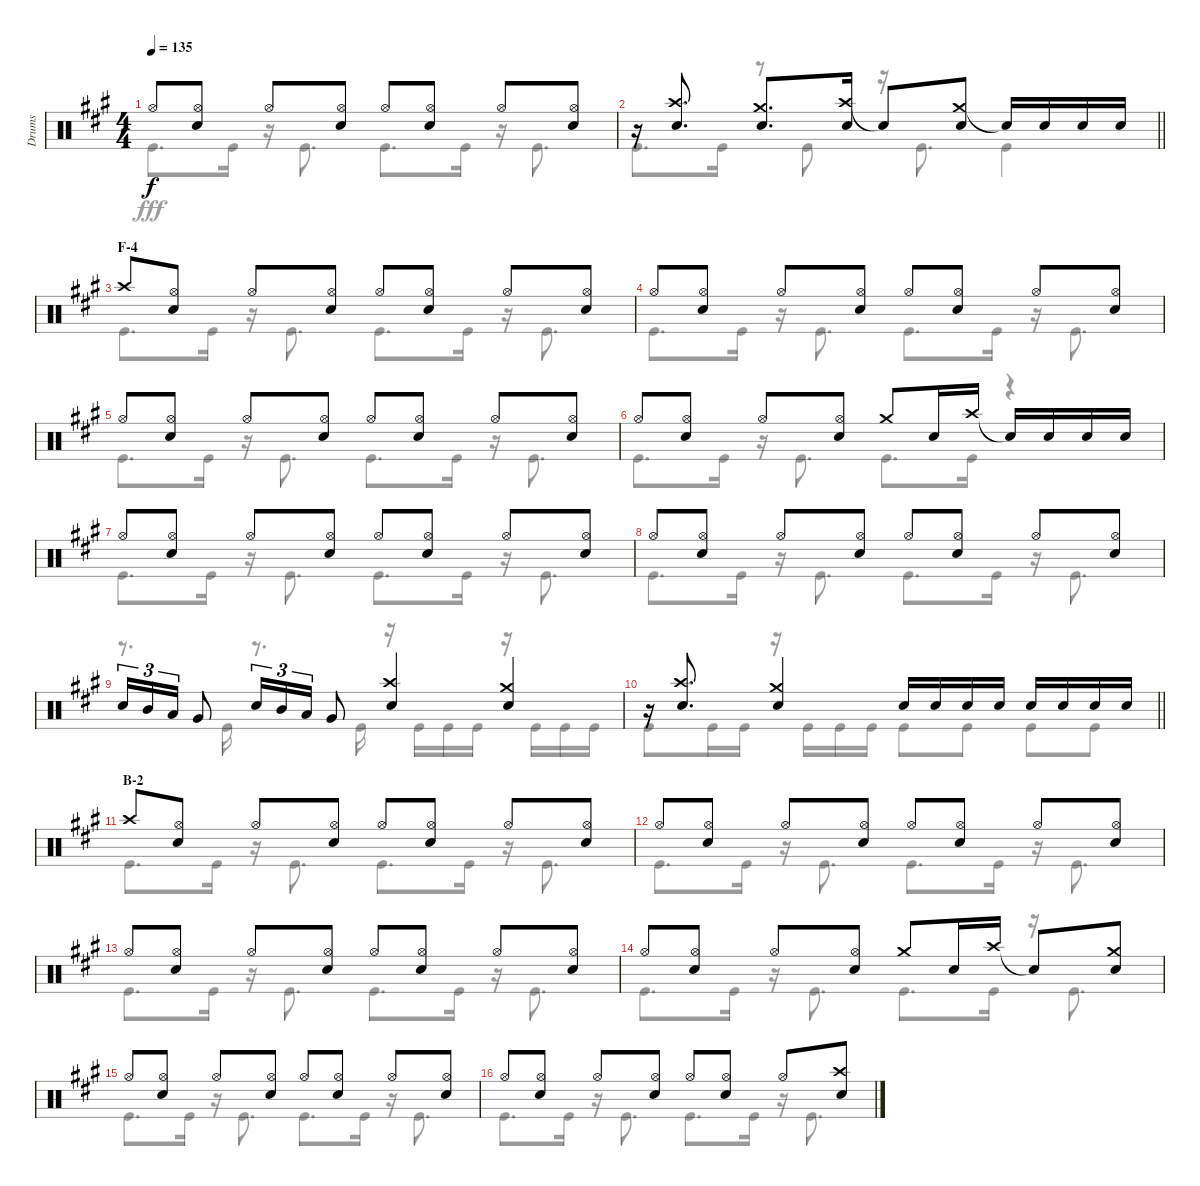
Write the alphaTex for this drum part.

\track ("Drums" "Drums") {instrument percussion}
\staff {score}
\articulation defaults
\voice
\ts (4 4)
\tempo 135
\clef neutral
\ks a "Hi-Hat (open)".8{dy f}
("Hi-Hat (open)" "Snare (hit) 2").8 "Hi-Hat (open)".8 ("Hi-Hat (open)" "Snare (hit) 2").8 "Hi-Hat (open)".8 ("Hi-Hat (open)" "Snare (hit) 2").8 "Hi-Hat (open)".8 ("Hi-Hat (open)" "Snare (hit) 2").8 |
\barLineRight lightlight
r.16 ("Crash high (hit)" "Snare (hit) 2").8{d} ("Crash medium (hit)" "Snare (hit) 2").8{d} ("Crash high (hit)" "Snare (hit) 2").16 "Snare (hit)"{t}.8 ("Crash medium (hit)" "Snare (hit) 2").8 "Snare (hit)"{t}.16 "Snare (hit) 2".16 "Snare (hit) 2".16 "Snare (hit) 2".16 |
\section ("" "F-4")
"Crash high (hit)".8 ("Hi-Hat (open)" "Snare (hit) 2").8 "Hi-Hat (open)".8 ("Hi-Hat (open)" "Snare (hit) 2").8 "Hi-Hat (open)".8 ("Hi-Hat (open)" "Snare (hit) 2").8 "Hi-Hat (open)".8 ("Hi-Hat (open)" "Snare (hit) 2").8 |
"Hi-Hat (open)".8 ("Hi-Hat (open)" "Snare (hit) 2").8 "Hi-Hat (open)".8 ("Hi-Hat (open)" "Snare (hit) 2").8 "Hi-Hat (open)".8 ("Hi-Hat (open)" "Snare (hit) 2").8 "Hi-Hat (open)".8 ("Hi-Hat (open)" "Snare (hit) 2").8 |
"Hi-Hat (open)".8 ("Hi-Hat (open)" "Snare (hit) 2").8 "Hi-Hat (open)".8 ("Hi-Hat (open)" "Snare (hit) 2").8 "Hi-Hat (open)".8 ("Hi-Hat (open)" "Snare (hit) 2").8 "Hi-Hat (open)".8 ("Hi-Hat (open)" "Snare (hit) 2").8 |
"Hi-Hat (open)".8 ("Hi-Hat (open)" "Snare (hit) 2").8 "Hi-Hat (open)".8 ("Hi-Hat (open)" "Snare (hit) 2").8 "Crash medium (hit)".8 "Snare (hit) 2".16 "Crash high (hit)".16 "Snare (hit)"{t}.16 "Snare (hit) 2".16 "Snare (hit) 2".16 "Snare (hit) 2".16 |
"Hi-Hat (open)".8 ("Hi-Hat (open)" "Snare (hit) 2").8 "Hi-Hat (open)".8 ("Hi-Hat (open)" "Snare (hit) 2").8 "Hi-Hat (open)".8 ("Hi-Hat (open)" "Snare (hit) 2").8 "Hi-Hat (open)".8 ("Hi-Hat (open)" "Snare (hit) 2").8 |
"Hi-Hat (open)".8 ("Hi-Hat (open)" "Snare (hit) 2").8 "Hi-Hat (open)".8 ("Hi-Hat (open)" "Snare (hit) 2").8 "Hi-Hat (open)".8 ("Hi-Hat (open)" "Snare (hit) 2").8 "Hi-Hat (open)".8 ("Hi-Hat (open)" "Snare (hit) 2").8 |
"Snare (hit) 2".16{tu (3 2)} "Mid Tom (hit)".16{tu (3 2)} "Low Tom (hit)".16{tu (3 2)} "Very Low Tom (hit)".8 "Snare (hit) 2".16{tu (3 2)} "Mid Tom (hit)".16{tu (3 2)} "Low Tom (hit)".16{tu (3 2)} "Very Low Tom (hit)".8 ("Crash high (hit)" "Snare (hit) 2").4 ("Crash medium (hit)" "Snare (hit) 2").4 |
\barLineRight lightlight
r.16 ("Crash high (hit)" "Snare (hit) 2").8{d} ("Crash medium (hit)" "Snare (hit) 2").4 "Snare (hit) 2".16 "Snare (hit) 2".16 "Snare (hit) 2".16 "Snare (hit) 2".16 "Snare (hit) 2".16 "Snare (hit) 2".16 "Snare (hit) 2".16 "Snare (hit) 2".16 |
\section ("" "B-2")
"Crash high (hit)".8 ("Hi-Hat (open)" "Snare (hit) 2").8 "Hi-Hat (open)".8 ("Hi-Hat (open)" "Snare (hit) 2").8 "Hi-Hat (open)".8 ("Hi-Hat (open)" "Snare (hit) 2").8 "Hi-Hat (open)".8 ("Hi-Hat (open)" "Snare (hit) 2").8 |
"Hi-Hat (open)".8 ("Hi-Hat (open)" "Snare (hit) 2").8 "Hi-Hat (open)".8 ("Hi-Hat (open)" "Snare (hit) 2").8 "Hi-Hat (open)".8 ("Hi-Hat (open)" "Snare (hit) 2").8 "Hi-Hat (open)".8 ("Hi-Hat (open)" "Snare (hit) 2").8 |
"Hi-Hat (open)".8 ("Hi-Hat (open)" "Snare (hit) 2").8 "Hi-Hat (open)".8 ("Hi-Hat (open)" "Snare (hit) 2").8 "Hi-Hat (open)".8 ("Hi-Hat (open)" "Snare (hit) 2").8 "Hi-Hat (open)".8 ("Hi-Hat (open)" "Snare (hit) 2").8 |
"Hi-Hat (open)".8 ("Hi-Hat (open)" "Snare (hit) 2").8 "Hi-Hat (open)".8 ("Hi-Hat (open)" "Snare (hit) 2").8 "Crash medium (hit)".8 "Snare (hit) 2".16 "Crash high (hit)".16 "Snare (hit)"{t}.8 ("Crash medium (hit)" "Snare (hit) 2").8 |
"Hi-Hat (open)".8 ("Hi-Hat (open)" "Snare (hit) 2").8 "Hi-Hat (open)".8 ("Hi-Hat (open)" "Snare (hit) 2").8 "Hi-Hat (open)".8 ("Hi-Hat (open)" "Snare (hit) 2").8 "Hi-Hat (open)".8 ("Hi-Hat (open)" "Snare (hit) 2").8 |
"Hi-Hat (open)".8 ("Hi-Hat (open)" "Snare (hit) 2").8 "Hi-Hat (open)".8 ("Hi-Hat (open)" "Snare (hit) 2").8 "Hi-Hat (open)".8 ("Hi-Hat (open)" "Snare (hit) 2").8 "Hi-Hat (open)".8 ("Crash high (hit)" "Snare (hit) 2").8
\voice
\clef neutral
\ottava regular
\simile none
\ks a "Kick (hit)".8{d dy fff} "Kick (hit)".16
r.16 "Kick (hit)".8{d} "Kick (hit)".8{d} "Kick (hit)".16 r.16 "Kick (hit)".8{d} |
\barLineRight lightlight "Kick (hit)".8{d} "Kick (hit)".16
r.8 "Kick (hit)".8 r.16 "Kick (hit)".8{d} "Kick (hit)".4 |
"Kick (hit)".8{d} "Kick (hit)".16 r.16 "Kick (hit)".8{d} "Kick (hit)".8{d} "Kick (hit)".16 r.16 "Kick (hit)".8{d} |
"Kick (hit)".8{d} "Kick (hit)".16 r.16 "Kick (hit)".8{d} "Kick (hit)".8{d} "Kick (hit)".16 r.16 "Kick (hit)".8{d} |
"Kick (hit)".8{d} "Kick (hit)".16 r.16 "Kick (hit)".8{d} "Kick (hit)".8{d} "Kick (hit)".16 r.16 "Kick (hit)".8{d} |
"Kick (hit)".8{d} "Kick (hit)".16 r.16 "Kick (hit)".8{d} "Kick (hit)".8{d} "Kick (hit)".16 r.4 |
"Kick (hit)".8{d} "Kick (hit)".16 r.16 "Kick (hit)".8{d} "Kick (hit)".8{d} "Kick (hit)".16 r.16 "Kick (hit)".8{d} |
"Kick (hit)".8{d} "Kick (hit)".16 r.16 "Kick (hit)".8{d} "Kick (hit)".8{d} "Kick (hit)".16 r.16 "Kick (hit)".8{d} |
r.8{d} "Kick (hit)".16 r.8{d} "Kick (hit)".16 r.16 "Kick (hit)".16 "Kick (hit)".16 "Kick (hit)".16 r.16 "Kick (hit)".16 "Kick (hit)".16 "Kick (hit)".16 |
\barLineRight lightlight "Kick (hit)".8 "Kick (hit)".16 "Kick (hit)".16
r.16 "Kick (hit)".16 "Kick (hit)".16 "Kick (hit)".16 "Kick (hit)".8 "Kick (hit)".8 "Kick (hit)".8 "Kick (hit)".8 |
"Kick (hit)".8{d} "Kick (hit)".16 r.16 "Kick (hit)".8{d} "Kick (hit)".8{d} "Kick (hit)".16 r.16 "Kick (hit)".8{d} |
"Kick (hit)".8{d} "Kick (hit)".16 r.16 "Kick (hit)".8{d} "Kick (hit)".8{d} "Kick (hit)".16 r.16 "Kick (hit)".8{d} |
"Kick (hit)".8{d} "Kick (hit)".16 r.16 "Kick (hit)".8{d} "Kick (hit)".8{d} "Kick (hit)".16 r.16 "Kick (hit)".8{d} |
"Kick (hit)".8{d} "Kick (hit)".16 r.16 "Kick (hit)".8{d} "Kick (hit)".8{d} "Kick (hit)".16 r.16 "Kick (hit)".8{d} |
"Kick (hit)".8{d} "Kick (hit)".16 r.16 "Kick (hit)".8{d} "Kick (hit)".8{d} "Kick (hit)".16 r.16 "Kick (hit)".8{d} |
"Kick (hit)".8{d} "Kick (hit)".16 r.16 "Kick (hit)".8{d} "Kick (hit)".8{d} "Kick (hit)".16 r.16 "Kick (hit)".8{d}
